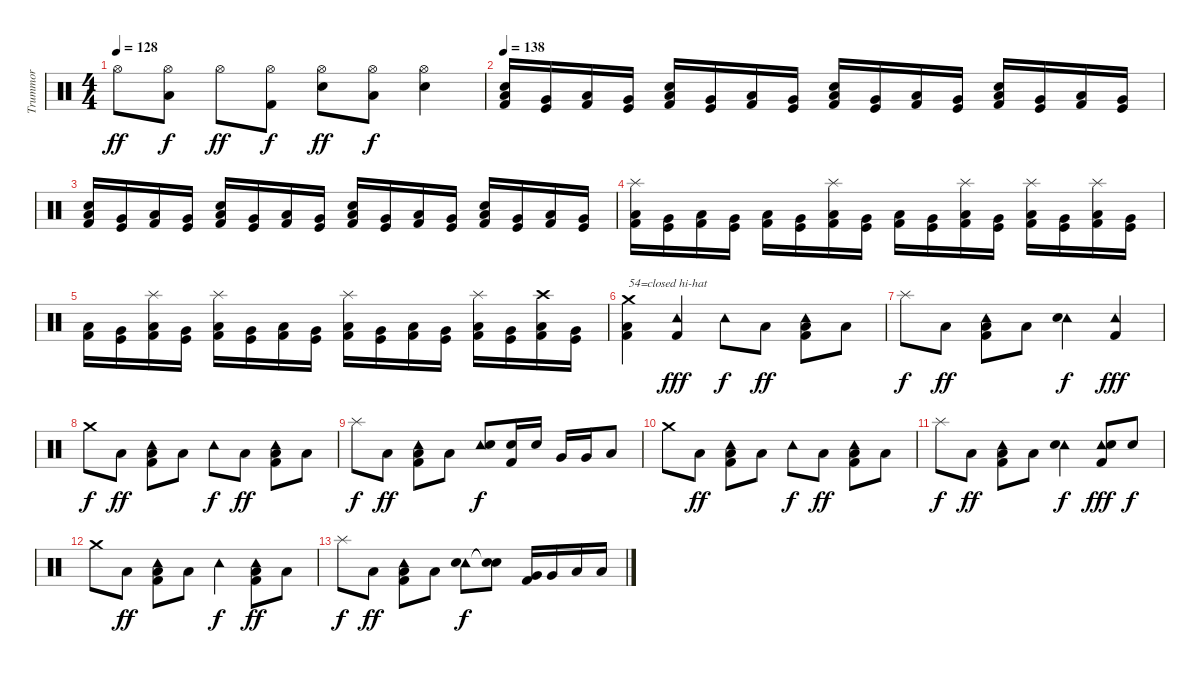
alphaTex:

\track ("Trummor" "Trummor") {instrument percussion}
\staff {score}
\articulation defaults
\ts (4 4)
\tempo 128
\clef neutral
\ks c "Hi-Hat (open)".8{dy ff}
("Hi-Hat (open)" "Low Floor Tom (hit)").8{dy f} "Hi-Hat (open)".8{dy ff} ("Hi-Hat (open)" "Kick (hit) 2").8{dy f} ("Hi-Hat (open)" "Snare (hit) 2").8{dy ff} ("Hi-Hat (open)" "Low Floor Tom (hit)").8{dy f} ("Hi-Hat (open)" "Snare (hit) 2").4 |
\tempo 138
("Snare (hit) 2" "Low Floor Tom (hit)" "Kick (hit) 2").16 ("Very Low Tom (hit)" "Kick (hit)").16 ("Low Floor Tom (hit)" "Kick (hit) 2").16 ("Very Low Tom (hit)" "Kick (hit)").16 ("Snare (hit) 2" "Low Floor Tom (hit)" "Kick (hit) 2").16 ("Very Low Tom (hit)" "Kick (hit)").16 ("Low Floor Tom (hit)" "Kick (hit) 2").16 ("Very Low Tom (hit)" "Kick (hit)").16 ("Snare (hit) 2" "Low Floor Tom (hit)" "Kick (hit) 2").16 ("Very Low Tom (hit)" "Kick (hit)").16 ("Low Floor Tom (hit)" "Kick (hit) 2").16 ("Very Low Tom (hit)" "Kick (hit)").16 ("Snare (hit) 2" "Low Floor Tom (hit)" "Kick (hit) 2").16 ("Very Low Tom (hit)" "Kick (hit)").16 ("Low Floor Tom (hit)" "Kick (hit) 2").16 ("Very Low Tom (hit)" "Kick (hit)").16 |
("Snare (hit) 2" "Low Floor Tom (hit)" "Kick (hit) 2").16 ("Very Low Tom (hit)" "Kick (hit)").16 ("Low Floor Tom (hit)" "Kick (hit) 2").16 ("Very Low Tom (hit)" "Kick (hit)").16 ("Snare (hit) 2" "Low Floor Tom (hit)" "Kick (hit) 2").16 ("Very Low Tom (hit)" "Kick (hit)").16 ("Low Floor Tom (hit)" "Kick (hit) 2").16 ("Very Low Tom (hit)" "Kick (hit)").16 ("Snare (hit) 2" "Low Floor Tom (hit)" "Kick (hit) 2").16 ("Very Low Tom (hit)" "Kick (hit)").16 ("Low Floor Tom (hit)" "Kick (hit) 2").16 ("Very Low Tom (hit)" "Kick (hit)").16 ("Snare (hit) 2" "Low Floor Tom (hit)" "Kick (hit) 2").16 ("Very Low Tom (hit)" "Kick (hit)").16 ("Low Floor Tom (hit)" "Kick (hit) 2").16 ("Very Low Tom (hit)" "Kick (hit)").16 |
("Splash (hit)" "Low Floor Tom (hit)" "Kick (hit) 2").16 ("Very Low Tom (hit)" "Kick (hit)").16 ("Low Floor Tom (hit)" "Kick (hit) 2").16 ("Very Low Tom (hit)" "Kick (hit)").16 ("Low Floor Tom (hit)" "Kick (hit) 2").16 ("Very Low Tom (hit)" "Kick (hit)").16 ("Splash (hit)" "Low Floor Tom (hit)" "Kick (hit) 2").16 ("Very Low Tom (hit)" "Kick (hit)").16 ("Low Floor Tom (hit)" "Kick (hit) 2").16 ("Very Low Tom (hit)" "Kick (hit)").16 ("Splash (hit)" "Low Floor Tom (hit)" "Kick (hit) 2").16 ("Very Low Tom (hit)" "Kick (hit)").16 ("Splash (hit)" "Low Floor Tom (hit)" "Kick (hit) 2").16 ("Very Low Tom (hit)" "Kick (hit)").16 ("Splash (hit)" "Low Floor Tom (hit)" "Kick (hit) 2").16 ("Very Low Tom (hit)" "Kick (hit)").16 |
("Low Floor Tom (hit)" "Kick (hit) 2").16 ("Very Low Tom (hit)" "Kick (hit)").16 ("Splash (hit)" "Low Floor Tom (hit)" "Kick (hit) 2").16 ("Very Low Tom (hit)" "Kick (hit)").16 ("Splash (hit)" "Low Floor Tom (hit)" "Kick (hit) 2").16 ("Very Low Tom (hit)" "Kick (hit)").16 ("Low Floor Tom (hit)" "Kick (hit) 2").16 ("Very Low Tom (hit)" "Kick (hit)").16 ("Splash (hit)" "Low Floor Tom (hit)" "Kick (hit) 2").16 ("Very Low Tom (hit)" "Kick (hit)").16 ("Low Floor Tom (hit)" "Kick (hit) 2").16 ("Very Low Tom (hit)" "Kick (hit)").16 ("Splash (hit)" "Low Floor Tom (hit)" "Kick (hit) 2").16 ("Very Low Tom (hit)" "Kick (hit)").16 ("Crash high (hit)" "Low Floor Tom (hit)" "Kick (hit) 2").16 ("Very Low Tom (hit)" "Kick (hit)").16 |
("Crash medium (hit)" "Low Floor Tom (hit)" "Kick (hit) 2").4{txt "54=closed hi-hat"} ("Tambourine (hit)" "Kick (hit) 2").4{dy fff} "Tambourine (hit)".8{dy f} "Low Floor Tom (hit)".8{dy ff} ("Tambourine (hit)" "Kick (hit) 2" "Low Floor Tom (hit)").8 "Low Floor Tom (hit)".8 |
"Splash (hit)".8{dy f} "Low Floor Tom (hit)".8{dy ff} ("Tambourine (hit)" "Kick (hit) 2" "Low Floor Tom (hit)").8 "Low Floor Tom (hit)".8 ("Tambourine (hit)" "Snare (hit) 2").4{dy f} ("Tambourine (hit)" "Kick (hit) 2").4{dy fff} |
"Crash medium (hit)".8{dy f} "Low Floor Tom (hit)".8{dy ff} ("Tambourine (hit)" "Kick (hit) 2" "Low Floor Tom (hit)").8 "Low Floor Tom (hit)".8 "Tambourine (hit)".8{dy f} "Low Floor Tom (hit)".8{dy ff} ("Tambourine (hit)" "Kick (hit) 2" "Low Floor Tom (hit)").8 "Low Floor Tom (hit)".8 |
"Splash (hit)".8{dy f} "Low Floor Tom (hit)".8{dy ff} ("Tambourine (hit)" "Kick (hit) 2" "Low Floor Tom (hit)").8 "Low Floor Tom (hit)".8 ("Tambourine (hit)" "Snare (hit) 2").8{dy f} ("Snare (hit) 2" "Kick (hit) 2").16 "Snare (hit) 2".16 "Very Low Tom (hit)".16 "Very Low Tom (hit)".16 "Low Tom (hit)".8 |
"Crash medium (hit)".8 "Low Floor Tom (hit)".8{dy ff} ("Tambourine (hit)" "Kick (hit) 2" "Low Floor Tom (hit)").8 "Low Floor Tom (hit)".8 "Tambourine (hit)".8{dy f} "Low Floor Tom (hit)".8{dy ff} ("Tambourine (hit)" "Kick (hit) 2" "Low Floor Tom (hit)").8 "Low Floor Tom (hit)".8 |
"Splash (hit)".8{dy f} "Low Floor Tom (hit)".8{dy ff} ("Tambourine (hit)" "Kick (hit) 2" "Low Floor Tom (hit)").8 "Low Floor Tom (hit)".8 ("Tambourine (hit)" "Snare (hit) 2").4{dy f} ("Tambourine (hit)" "Snare (hit) 2" "Kick (hit) 2").8{dy fff} "Snare (hit) 2".8{dy f} |
"Crash medium (hit)".8 "Low Floor Tom (hit)".8{dy ff} ("Tambourine (hit)" "Kick (hit) 2" "Low Floor Tom (hit)").8 "Low Floor Tom (hit)".8 "Tambourine (hit)".4{dy f} ("Tambourine (hit)" "Kick (hit) 2" "Low Floor Tom (hit)").8{dy ff} "Low Floor Tom (hit)".8 |
"Splash (hit)".8{dy f} "Low Floor Tom (hit)".8{dy ff} ("Tambourine (hit)" "Kick (hit) 2" "Low Floor Tom (hit)").8 "Low Floor Tom (hit)".8 ("Tambourine (hit)" "Snare (hit) 2").8{dy f} ("Snare (hit)"{t} "Snare (hit)"{t}).8 ("Very Low Tom (hit)" "Kick (hit) 2").16 "Very Low Tom (hit)".16 "Low Tom (hit)".16 "Low Tom (hit)".16
